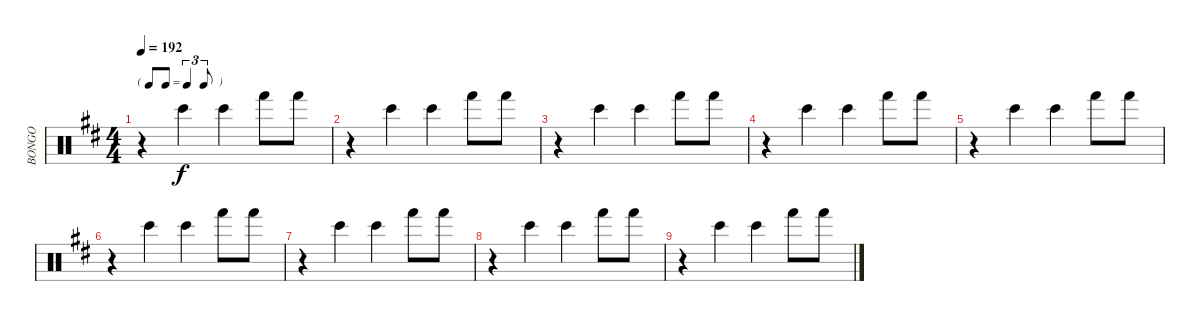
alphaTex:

\track ("BONGO" "BONGO") {instrument percussion}
\staff {score}
\articulation defaults
\ts (4 4)
\tf triplet8th
\tempo 192
\clef neutral
\ks d
r.4{dy f} "Bongo High (hit)".4 "Bongo High (hit)".4 "Hand (hit)".8 "Hand (hit)".8 |
r.4 "Bongo High (hit)".4 "Bongo High (hit)".4 "Hand (hit)".8 "Hand (hit)".8 |
r.4 "Bongo High (hit)".4 "Bongo High (hit)".4 "Hand (hit)".8 "Hand (hit)".8 |
r.4 "Bongo High (hit)".4 "Bongo High (hit)".4 "Hand (hit)".8 "Hand (hit)".8 |
r.4 "Bongo High (hit)".4 "Bongo High (hit)".4 "Hand (hit)".8 "Hand (hit)".8 |
r.4 "Bongo High (hit)".4 "Bongo High (hit)".4 "Hand (hit)".8 "Hand (hit)".8 |
r.4 "Bongo High (hit)".4 "Bongo High (hit)".4 "Hand (hit)".8 "Hand (hit)".8 |
r.4 "Bongo High (hit)".4 "Bongo High (hit)".4 "Hand (hit)".8 "Hand (hit)".8 |
r.4 "Bongo High (hit)".4 "Bongo High (hit)".4 "Hand (hit)".8 "Hand (hit)".8
